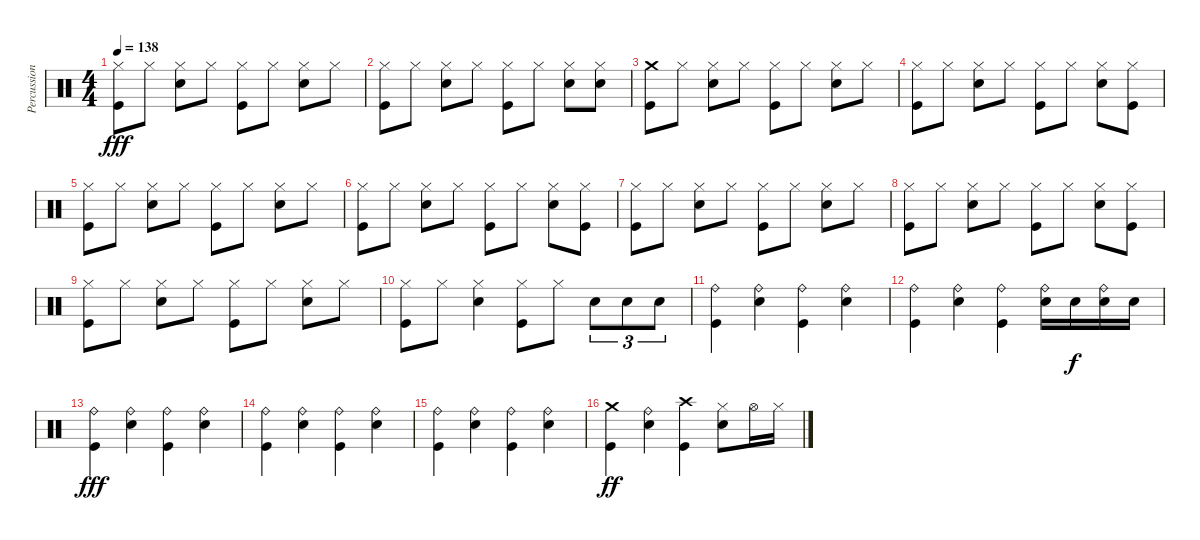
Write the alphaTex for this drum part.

\track ("Percussions" "Percussion") {instrument percussion}
\staff {score}
\articulation defaults
\ts (4 4)
\tempo 138
\clef neutral
\ks c
("Hi-Hat (closed)" "Kick (hit)").8{dy fff} "Hi-Hat (closed)".8 ("Hi-Hat (closed)" "Snare (hit) 2").8 "Hi-Hat (closed)".8 ("Hi-Hat (closed)" "Kick (hit)").8 "Hi-Hat (closed)".8 ("Hi-Hat (closed)" "Snare (hit) 2").8 "Hi-Hat (closed)".8 |
("Hi-Hat (closed)" "Kick (hit)").8 "Hi-Hat (closed)".8 ("Hi-Hat (closed)" "Snare (hit) 2").8 "Hi-Hat (closed)".8 ("Hi-Hat (closed)" "Kick (hit)").8 "Hi-Hat (closed)".8 ("Hi-Hat (closed)" "Snare (hit) 2").8 ("Hi-Hat (closed)" "Snare (hit) 2").8 |
("Crash medium (hit)" "Kick (hit)").8 "Hi-Hat (closed)".8 ("Hi-Hat (closed)" "Snare (hit) 2").8 "Hi-Hat (closed)".8 ("Hi-Hat (closed)" "Kick (hit)").8 "Hi-Hat (closed)".8 ("Hi-Hat (closed)" "Snare (hit) 2").8 "Hi-Hat (closed)".8 |
("Hi-Hat (closed)" "Kick (hit)").8 "Hi-Hat (closed)".8 ("Hi-Hat (closed)" "Snare (hit) 2").8 "Hi-Hat (closed)".8 ("Hi-Hat (closed)" "Kick (hit)").8 "Hi-Hat (closed)".8 ("Hi-Hat (closed)" "Snare (hit) 2").8 ("Hi-Hat (closed)" "Kick (hit)").8 |
("Hi-Hat (closed)" "Kick (hit)").8 "Hi-Hat (closed)".8 ("Hi-Hat (closed)" "Snare (hit) 2").8 "Hi-Hat (closed)".8 ("Hi-Hat (closed)" "Kick (hit)").8 "Hi-Hat (closed)".8 ("Hi-Hat (closed)" "Snare (hit) 2").8 "Hi-Hat (closed)".8 |
("Hi-Hat (closed)" "Kick (hit)").8 "Hi-Hat (closed)".8 ("Hi-Hat (closed)" "Snare (hit) 2").8 "Hi-Hat (closed)".8 ("Hi-Hat (closed)" "Kick (hit)").8 "Hi-Hat (closed)".8 ("Hi-Hat (closed)" "Snare (hit) 2").8 ("Hi-Hat (closed)" "Kick (hit)").8 |
("Hi-Hat (closed)" "Kick (hit)").8 "Hi-Hat (closed)".8 ("Hi-Hat (closed)" "Snare (hit) 2").8 "Hi-Hat (closed)".8 ("Hi-Hat (closed)" "Kick (hit)").8 "Hi-Hat (closed)".8 ("Hi-Hat (closed)" "Snare (hit) 2").8 "Hi-Hat (closed)".8 |
("Hi-Hat (closed)" "Kick (hit)").8 "Hi-Hat (closed)".8 ("Hi-Hat (closed)" "Snare (hit) 2").8 "Hi-Hat (closed)".8 ("Hi-Hat (closed)" "Kick (hit)").8 "Hi-Hat (closed)".8 ("Hi-Hat (closed)" "Snare (hit) 2").8 ("Hi-Hat (closed)" "Kick (hit)").8 |
("Hi-Hat (closed)" "Kick (hit)").8 "Hi-Hat (closed)".8 ("Hi-Hat (closed)" "Snare (hit) 2").8 "Hi-Hat (closed)".8 ("Hi-Hat (closed)" "Kick (hit)").8 "Hi-Hat (closed)".8 ("Hi-Hat (closed)" "Snare (hit) 2").8 "Hi-Hat (closed)".8 |
("Hi-Hat (closed)" "Kick (hit)").8 "Hi-Hat (closed)".8 ("Hi-Hat (closed)" "Snare (hit) 2").4 ("Hi-Hat (closed)" "Kick (hit)").8 "Hi-Hat (closed)".8 "Snare (hit) 2".8{tu (3 2)} "Snare (hit) 2".8{tu (3 2)} "Snare (hit) 2".8{tu (3 2)} |
("Ride (bell)" "Kick (hit)").4 ("Ride (bell)" "Snare (hit) 2").4 ("Ride (bell)" "Kick (hit)").4 ("Ride (bell)" "Snare (hit) 2").4 |
("Ride (bell)" "Kick (hit)").4 ("Ride (bell)" "Snare (hit) 2").4 ("Ride (bell)" "Kick (hit)").4 ("Ride (bell)" "Snare (hit) 2").16 "Snare (hit) 2".16{dy f} ("Ride (bell)" "Snare (hit) 2").16 "Snare (hit) 2".16 |
("Ride (bell)" "Kick (hit)").4{dy fff} ("Ride (bell)" "Snare (hit) 2").4 ("Ride (bell)" "Kick (hit)").4 ("Ride (bell)" "Snare (hit) 2").4 |
("Ride (bell)" "Kick (hit)").4 ("Ride (bell)" "Snare (hit) 2").4 ("Ride (bell)" "Kick (hit)").4 ("Ride (bell)" "Snare (hit) 2").4 |
("Ride (bell)" "Kick (hit)").4 ("Ride (bell)" "Snare (hit) 2").4 ("Ride (bell)" "Kick (hit)").4 ("Ride (bell)" "Snare (hit) 2").4 |
("Crash medium (hit)" "Kick (hit)").4{dy ff} ("Ride (bell)" "Snare (hit) 2").4 ("Crash high (hit)" "Kick (hit)").4 ("Hi-Hat (closed)" "Snare (hit) 2").8 "Hi-Hat (open)".16 "Hi-Hat (closed)".16
